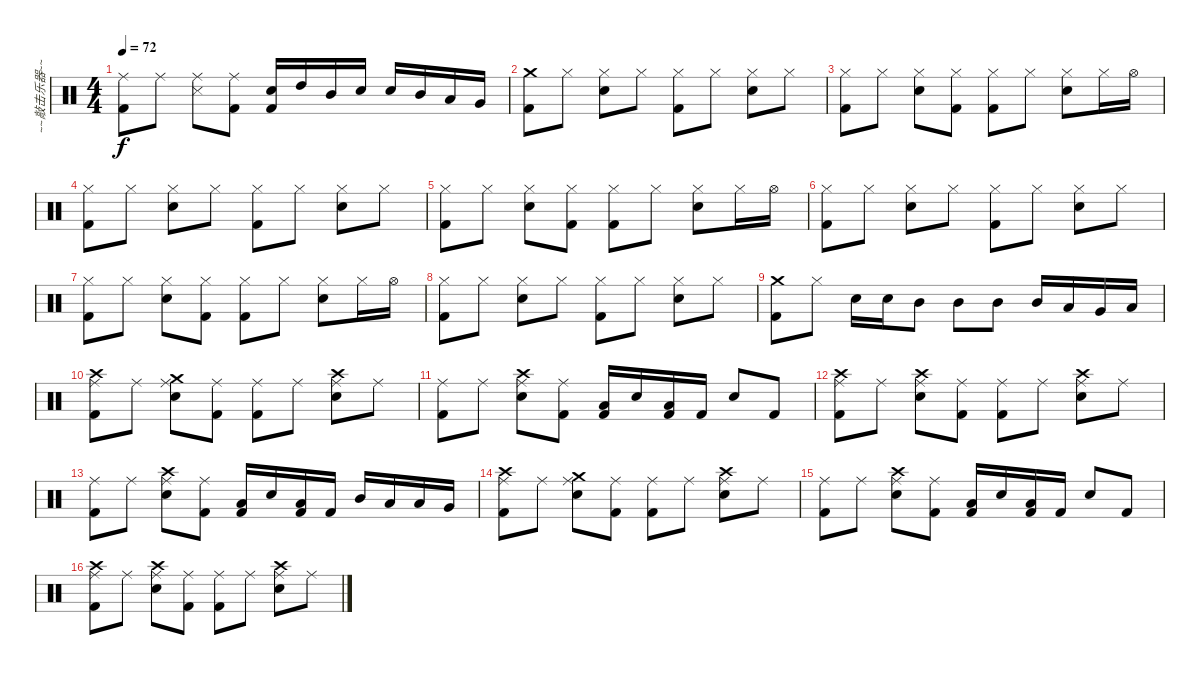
\track ("~~敲击乐器~~" "~~敲击乐器~~") {instrument percussion}
\staff {score}
\articulation defaults
\ts (4 4)
\tempo 72
\clef neutral
\ks c
("Ride (middle)" "Kick (hit) 2").8{dy f} "Ride (middle)".8 ("Snare (side stick) 3" "Ride (middle)").8 ("Ride (middle)" "Kick (hit) 2").8 ("Electric Snare (hit)" "Kick (hit) 2").16 "High Tom (hit)".16 "Mid Tom (hit)".16 "Electric Snare (hit)".16 "Snare (hit) 2".16 "Mid Tom (hit)".16 "Low Tom (hit)".16 "Very Low Tom (hit)".16 |
("Crash medium (hit)" "Kick (hit) 2").8 "Hi-Hat (closed)".8 ("Snare (hit) 2" "Hi-Hat (closed)").8 "Hi-Hat (closed)".8 ("Hi-Hat (closed)" "Kick (hit) 2").8 "Hi-Hat (closed)".8 ("Snare (hit) 2" "Hi-Hat (closed)").8 "Hi-Hat (closed)".8 |
("Hi-Hat (closed)" "Kick (hit) 2").8 "Hi-Hat (closed)".8 ("Snare (hit) 2" "Hi-Hat (closed)").8 ("Hi-Hat (closed)" "Kick (hit) 2").8 ("Hi-Hat (closed)" "Kick (hit) 2").8 "Hi-Hat (closed)".8 ("Snare (hit) 2" "Hi-Hat (closed)").8 "Hi-Hat (closed)".16 "Hi-Hat (open)".16 |
("Hi-Hat (closed)" "Kick (hit) 2").8 "Hi-Hat (closed)".8 ("Snare (hit) 2" "Hi-Hat (closed)").8 "Hi-Hat (closed)".8 ("Hi-Hat (closed)" "Kick (hit) 2").8 "Hi-Hat (closed)".8 ("Snare (hit) 2" "Hi-Hat (closed)").8 "Hi-Hat (closed)".8 |
("Hi-Hat (closed)" "Kick (hit) 2").8 "Hi-Hat (closed)".8 ("Snare (hit) 2" "Hi-Hat (closed)").8 ("Hi-Hat (closed)" "Kick (hit) 2").8 ("Hi-Hat (closed)" "Kick (hit) 2").8 "Hi-Hat (closed)".8 ("Snare (hit) 2" "Hi-Hat (closed)").8 "Hi-Hat (closed)".16 "Hi-Hat (open)".16 |
("Hi-Hat (closed)" "Kick (hit) 2").8 "Hi-Hat (closed)".8 ("Snare (hit) 2" "Hi-Hat (closed)").8 "Hi-Hat (closed)".8 ("Hi-Hat (closed)" "Kick (hit) 2").8 "Hi-Hat (closed)".8 ("Snare (hit) 2" "Hi-Hat (closed)").8 "Hi-Hat (closed)".8 |
("Hi-Hat (closed)" "Kick (hit) 2").8 "Hi-Hat (closed)".8 ("Snare (hit) 2" "Hi-Hat (closed)").8 ("Hi-Hat (closed)" "Kick (hit) 2").8 ("Hi-Hat (closed)" "Kick (hit) 2").8 "Hi-Hat (closed)".8 ("Snare (hit) 2" "Hi-Hat (closed)").8 "Hi-Hat (closed)".16 "Hi-Hat (open)".16 |
("Hi-Hat (closed)" "Kick (hit) 2").8 "Hi-Hat (closed)".8 ("Snare (hit) 2" "Hi-Hat (closed)").8 "Hi-Hat (closed)".8 ("Hi-Hat (closed)" "Kick (hit) 2").8 "Hi-Hat (closed)".8 ("Snare (hit) 2" "Hi-Hat (closed)").8 "Hi-Hat (closed)".8 |
("Crash medium (hit)" "Kick (hit) 2").8 "Hi-Hat (closed)".8 "Electric Snare (hit)".16 "Electric Snare (hit)".16 "Mid Tom (hit)".8 "Mid Tom (hit)".8 "Mid Tom (hit)".8 "Mid Tom (hit)".16 "Low Tom (hit)".16 "Very Low Tom (hit)".16 "Low Floor Tom (hit)".16 |
("Crash high (hit)" "Ride (middle)" "Kick (hit) 2").8 "Ride (middle)".8 ("Crash medium (hit)" "Ride (middle)" "Snare (hit) 2").8 ("Ride (middle)" "Kick (hit) 2").8 ("Ride (middle)" "Kick (hit) 2").8 "Ride (middle)".8 ("Crash high (hit)" "Ride (middle)" "Snare (hit) 2").8 "Ride (middle)".8 |
("Ride (middle)" "Kick (hit) 2").8 "Ride (middle)".8 ("Crash high (hit)" "Ride (middle)" "Snare (hit) 2").8 ("Ride (middle)" "Kick (hit) 2").8 ("Low Floor Tom (hit)" "Kick (hit) 2").16 "Snare (hit) 2".16 ("Low Floor Tom (hit)" "Kick (hit) 2").16 "Kick (hit) 2".16 "Snare (hit) 2".8 "Kick (hit) 2".8 |
("Crash high (hit)" "Ride (middle)" "Kick (hit) 2").8 "Ride (middle)".8 ("Crash high (hit)" "Ride (middle)" "Snare (hit) 2").8 ("Ride (middle)" "Kick (hit) 2").8 ("Ride (middle)" "Kick (hit) 2").8 "Ride (middle)".8 ("Crash high (hit)" "Ride (middle)" "Snare (hit) 2").8 "Ride (middle)".8 |
("Ride (middle)" "Kick (hit) 2").8 "Ride (middle)".8 ("Crash high (hit)" "Ride (middle)" "Snare (hit) 2").8 ("Ride (middle)" "Kick (hit) 2").8 ("Low Floor Tom (hit)" "Kick (hit) 2").16 "Snare (hit) 2".16 ("Low Floor Tom (hit)" "Kick (hit) 2").16 "Kick (hit) 2".16 "Mid Tom (hit)".16 "Low Tom (hit)".16 "Low Tom (hit)".16 "Very Low Tom (hit)".16 |
("Crash high (hit)" "Ride (middle)" "Kick (hit) 2").8 "Ride (middle)".8 ("Crash medium (hit)" "Ride (middle)" "Snare (hit) 2").8 ("Ride (middle)" "Kick (hit) 2").8 ("Ride (middle)" "Kick (hit) 2").8 "Ride (middle)".8 ("Crash high (hit)" "Ride (middle)" "Snare (hit) 2").8 "Ride (middle)".8 |
("Ride (middle)" "Kick (hit) 2").8 "Ride (middle)".8 ("Crash high (hit)" "Ride (middle)" "Snare (hit) 2").8 ("Ride (middle)" "Kick (hit) 2").8 ("Low Floor Tom (hit)" "Kick (hit) 2").16 "Snare (hit) 2".16 ("Low Floor Tom (hit)" "Kick (hit) 2").16 "Kick (hit) 2".16 "Snare (hit) 2".8 "Kick (hit) 2".8 |
("Crash high (hit)" "Ride (middle)" "Kick (hit) 2").8 "Ride (middle)".8 ("Crash high (hit)" "Ride (middle)" "Snare (hit) 2").8 ("Ride (middle)" "Kick (hit) 2").8 ("Ride (middle)" "Kick (hit) 2").8 "Ride (middle)".8 ("Crash high (hit)" "Ride (middle)" "Snare (hit) 2").8 "Ride (middle)".8
